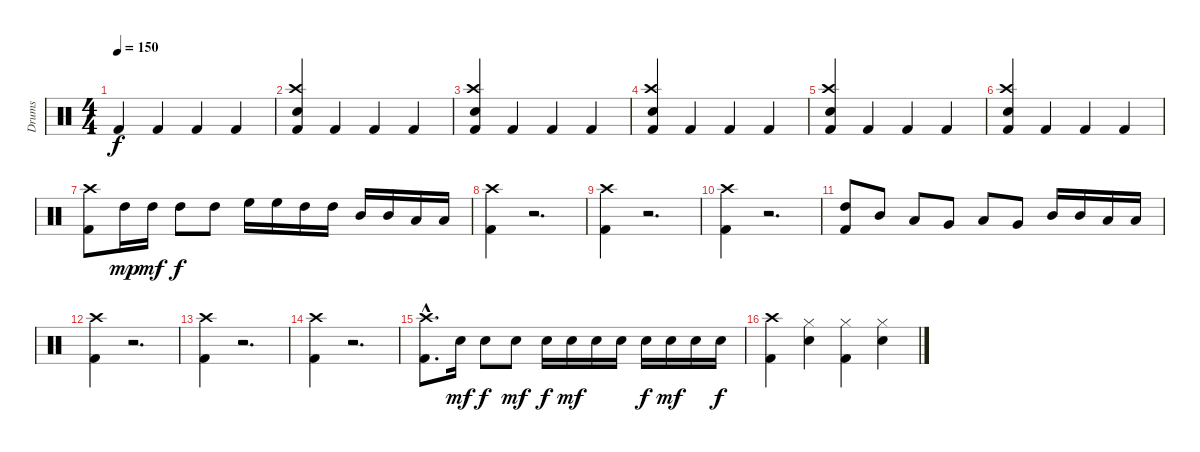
\track ("Drums" "Drums") {instrument percussion}
\staff {score}
\articulation defaults
\ts (4 4)
\tempo 150
\clef neutral
\ks c "Kick (hit) 2".4{dy f} "Kick (hit) 2".4 "Kick (hit) 2".4 "Kick (hit) 2".4
|
("Crash high (hit)" "Snare (hit) 2" "Kick (hit) 2").4 "Kick (hit) 2".4 "Kick (hit) 2".4 "Kick (hit) 2".4 |
("Crash high (hit)" "Snare (hit) 2" "Kick (hit) 2").4 "Kick (hit) 2".4 "Kick (hit) 2".4 "Kick (hit) 2".4 |
("Crash high (hit)" "Kick (hit) 2" "Snare (hit) 2").4 "Kick (hit) 2".4 "Kick (hit) 2".4 "Kick (hit) 2".4 |
("Crash high (hit)" "Snare (hit) 2" "Kick (hit) 2").4 "Kick (hit) 2".4 "Kick (hit) 2".4 "Kick (hit) 2".4 |
("Kick (hit) 2" "Crash high (hit)" "Snare (hit) 2").4 "Kick (hit) 2".4 "Kick (hit) 2".4 "Kick (hit) 2".4 |
("Kick (hit) 2" "Crash high (hit)").8 "High Tom (hit)".16{dy mp} "High Tom (hit)".16{dy mf} "High Tom (hit)".8{dy f} "High Tom (hit)".8 "High Floor Tom (hit)".16 "High Floor Tom (hit)".16 "High Tom (hit)".16 "High Tom (hit)".16 "Mid Tom (hit)".16 "Mid Tom (hit)".16 "Low Tom (hit)".16 "Low Tom (hit)".16 |
("Kick (hit) 2" "Crash high (hit)").4 r.2{d} |
("Kick (hit) 2" "Crash high (hit)").4 r.2{d} |
("Crash high (hit)" "Kick (hit) 2").4 r.2{d} |
("Kick (hit) 2" "High Tom (hit)").8 "Mid Tom (hit)".8 "Low Tom (hit)".8 "Very Low Tom (hit)".8 "Low Tom (hit)".8 "Very Low Tom (hit)".8 "Mid Tom (hit)".16 "Mid Tom (hit)".16 "Low Tom (hit)".16 "Low Tom (hit)".16 |
("Crash high (hit)" "Kick (hit) 2").4 r.2{d} |
("Crash high (hit)" "Kick (hit) 2").4 r.2{d} |
("Crash high (hit)" "Kick (hit) 2").4 r.2{d} |
("Crash high (hit)" "Kick (hit) 2"{hac}).8{d} "Snare (hit) 2".16{dy mf} "Snare (hit) 2".8{dy f} "Snare (hit) 2".8{dy mf} "Snare (hit) 2".16{dy f} "Snare (hit) 2".16{dy mf} "Snare (hit) 2".16 "Snare (hit) 2".16 "Snare (hit) 2".16{dy f} "Snare (hit) 2".16{dy mf} "Snare (hit) 2".16 "Snare (hit) 2".16{dy f} |
("Crash high (hit)" "Kick (hit) 2").4 ("Snare (hit) 2" "Hi-Hat (closed)").4 ("Kick (hit) 2" "Hi-Hat (closed)").4 ("Hi-Hat (closed)" "Snare (hit) 2").4
